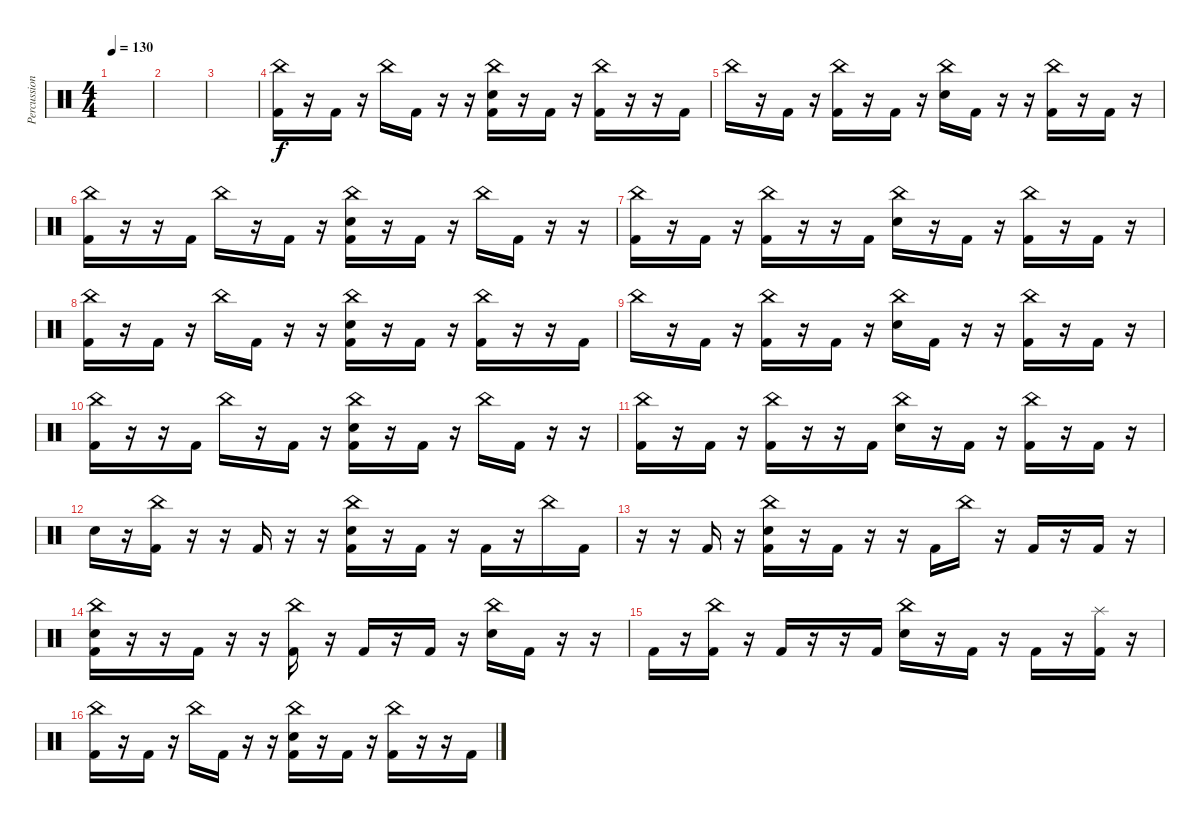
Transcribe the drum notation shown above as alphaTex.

\track ("Percussion" "Percussion") {instrument percussion}
\staff {score}
\articulation defaults
\ts (4 4)
\tempo 130
\clef neutral
\ks c
|
|
|
("China (hit)" "Kick (hit) 2").16 r.16 "Kick (hit) 2".16 r.16 "China (hit)".16 "Kick (hit) 2".16 r.16 r.16 ("China (hit)" "Snare (hit) 2" "Kick (hit) 2").16 r.16 "Kick (hit) 2".16 r.16 ("China (hit)" "Kick (hit) 2").16 r.16 r.16 "Kick (hit) 2".16 |
"China (hit)".16 r.16 "Kick (hit) 2".16 r.16 ("China (hit)" "Kick (hit) 2").16 r.16 "Kick (hit) 2".16 r.16 ("China (hit)" "Snare (hit) 2").16 "Kick (hit) 2".16 r.16 r.16 ("China (hit)" "Kick (hit) 2").16 r.16 "Kick (hit) 2".16 r.16 |
("China (hit)" "Kick (hit) 2").16 r.16 r.16 "Kick (hit) 2".16 "China (hit)".16 r.16 "Kick (hit) 2".16 r.16 ("China (hit)" "Snare (hit) 2" "Kick (hit) 2").16 r.16 "Kick (hit) 2".16 r.16 "China (hit)".16 "Kick (hit) 2".16 r.16 r.16 |
("China (hit)" "Kick (hit) 2").16 r.16 "Kick (hit) 2".16 r.16 ("China (hit)" "Kick (hit) 2").16 r.16 r.16 "Kick (hit) 2".16 ("China (hit)" "Snare (hit) 2").16 r.16 "Kick (hit) 2".16 r.16 ("China (hit)" "Kick (hit) 2").16 r.16 "Kick (hit) 2".16 r.16 |
("China (hit)" "Kick (hit) 2").16 r.16 "Kick (hit) 2".16 r.16 "China (hit)".16 "Kick (hit) 2".16 r.16 r.16 ("China (hit)" "Snare (hit) 2" "Kick (hit) 2").16 r.16 "Kick (hit) 2".16 r.16 ("China (hit)" "Kick (hit) 2").16 r.16 r.16 "Kick (hit) 2".16 |
"China (hit)".16 r.16 "Kick (hit) 2".16 r.16 ("China (hit)" "Kick (hit) 2").16 r.16 "Kick (hit) 2".16 r.16 ("China (hit)" "Snare (hit) 2").16 "Kick (hit) 2".16 r.16 r.16 ("China (hit)" "Kick (hit) 2").16 r.16 "Kick (hit) 2".16 r.16 |
("China (hit)" "Kick (hit) 2").16 r.16 r.16 "Kick (hit) 2".16 "China (hit)".16 r.16 "Kick (hit) 2".16 r.16 ("China (hit)" "Snare (hit) 2" "Kick (hit) 2").16 r.16 "Kick (hit) 2".16 r.16 "China (hit)".16 "Kick (hit) 2".16 r.16 r.16 |
("China (hit)" "Kick (hit) 2").16 r.16 "Kick (hit) 2".16 r.16 ("China (hit)" "Kick (hit) 2").16 r.16 r.16 "Kick (hit) 2".16 ("China (hit)" "Snare (hit) 2").16 r.16 "Kick (hit) 2".16 r.16 ("China (hit)" "Kick (hit) 2").16 r.16 "Kick (hit) 2".16 r.16 |
"Snare (hit) 2".16 r.16 ("China (hit)" "Kick (hit) 2").16 r.16 r.16 "Kick (hit) 2".16 r.16 r.16 ("China (hit)" "Snare (hit) 2" "Kick (hit) 2").16 r.16 "Kick (hit) 2".16 r.16 "Kick (hit) 2".16 r.16 "China (hit)".16 "Kick (hit) 2".16 |
r.16 r.16 "Kick (hit) 2".16 r.16 ("China (hit)" "Snare (hit) 2" "Kick (hit) 2").16 r.16 "Kick (hit) 2".16 r.16 r.16 "Kick (hit) 2".16 "China (hit)".16 r.16 "Kick (hit) 2".16 r.16 "Kick (hit) 2".16 r.16 |
("China (hit)" "Snare (hit) 2" "Kick (hit) 2").16 r.16 r.16 "Kick (hit) 2".16 r.16 r.16 ("China (hit)" "Kick (hit) 2").16 r.16 "Kick (hit) 2".16 r.16 "Kick (hit) 2".16 r.16 ("China (hit)" "Snare (hit) 2").16 "Kick (hit) 2".16 r.16 r.16 |
"Kick (hit) 2".16 r.16 ("China (hit)" "Kick (hit) 2").16 r.16 "Kick (hit) 2".16 r.16 r.16 "Kick (hit) 2".16 ("China (hit)" "Snare (hit) 2").16 r.16 "Kick (hit) 2".16 r.16 "Kick (hit) 2".16 r.16 ("Splash (hit)" "Kick (hit) 2").16 r.16 |
("China (hit)" "Kick (hit) 2").16 r.16 "Kick (hit) 2".16 r.16 "China (hit)".16 "Kick (hit) 2".16 r.16 r.16 ("China (hit)" "Snare (hit) 2" "Kick (hit) 2").16 r.16 "Kick (hit) 2".16 r.16 ("China (hit)" "Kick (hit) 2").16 r.16 r.16 "Kick (hit) 2".16
